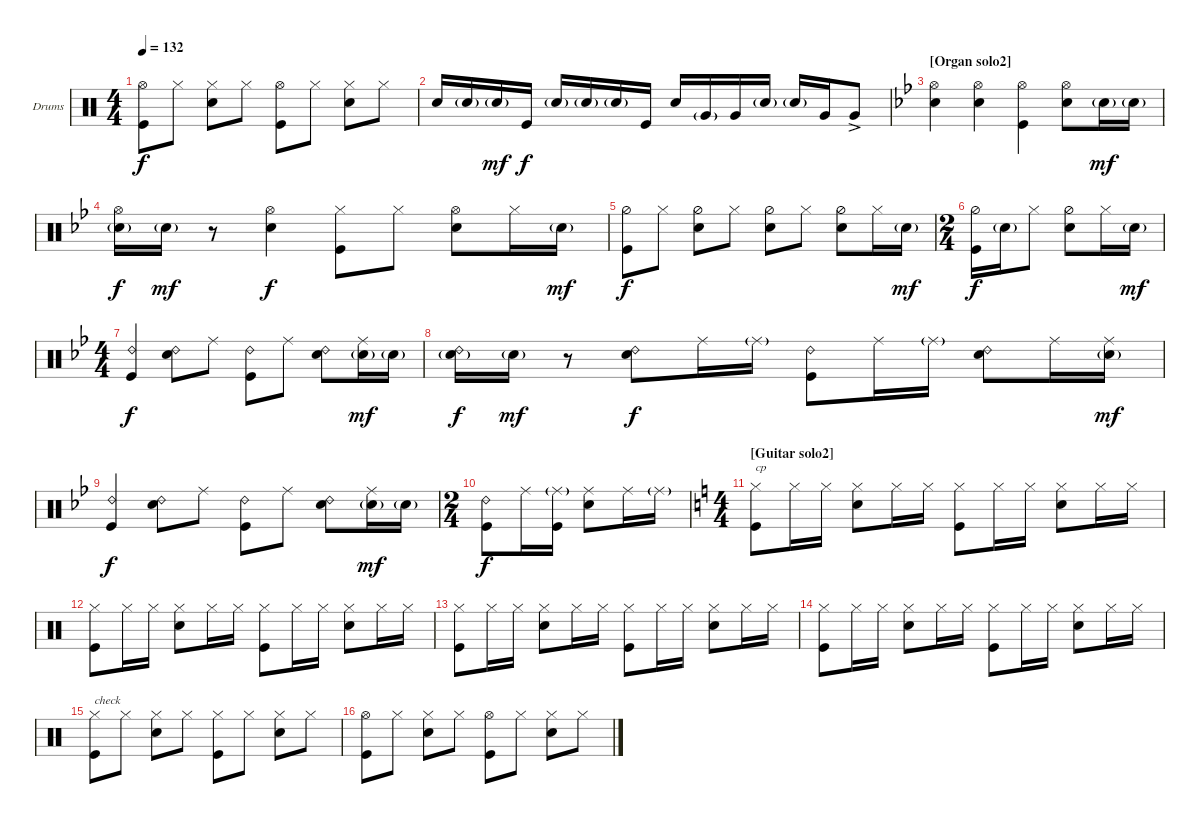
\bracketExtendMode groupsimilarinstruments
\firstSystemTrackNameOrientation horizontal
\otherSystemsTrackNameOrientation horizontal
\track ("Drumkit" "Drums") {instrument percussion}
\staff {score}
\articulation defaults
\ts (4 4)
\tempo 132
\clef neutral
\ks c
("Hi-Hat (open)" "Kick (hit)").8{dy f} "Hi-Hat (closed)".8 ("Hi-Hat (closed)" "Snare (hit) 2").8 "Hi-Hat (closed)".8 ("Hi-Hat (open)" "Kick (hit)").8 "Hi-Hat (closed)".8 ("Snare (hit) 2" "Hi-Hat (closed)").8 "Hi-Hat (closed)".8 |
"Snare (hit) 2".16 "Snare (hit) 2"{g}.16 "Snare (hit) 2"{g}.16{dy mf} "Kick (hit)".16{dy f} "Snare (hit) 2"{g}.16 "Snare (hit) 2"{g}.16 "Snare (hit) 2"{g}.16 "Kick (hit)".16 "Snare (hit) 2".16 "Very Low Tom (hit)"{g}.16 "Very Low Tom (hit)".16 "Snare (hit) 2"{g}.16 "Snare (hit) 2"{g}.16 "Very Low Tom (hit)".16 "Very Low Tom (hit)"{ac}.8 |
\section ("" "[Organ solo2] ")
\ks gminor
("Snare (hit) 2" "Hi-Hat (open)").4 ("Snare (hit) 2" "Hi-Hat (open)").4 ("Hi-Hat (open)" "Kick (hit)").4 ("Snare (hit) 2" "Hi-Hat (open)").8 "Snare (hit) 2"{g}.16{dy mf} "Snare (hit) 2"{g}.16 |
("Snare (hit) 2"{g} "Hi-Hat (open)").16{dy f} "Snare (hit) 2"{g}.16{dy mf} r.8 ("Hi-Hat (open)" "Snare (hit) 2").4{dy f} ("Hi-Hat (closed)" "Kick (hit)").8 "Hi-Hat (closed)".8 ("Hi-Hat (open)" "Snare (hit) 2").8 "Hi-Hat (closed)".16 "Snare (hit) 2"{g}.16{dy mf} |
("Hi-Hat (half)" "Kick (hit)").8{dy f} "Hi-Hat (closed)".8 ("Hi-Hat (half)" "Snare (hit) 2").8 "Hi-Hat (closed)".8 ("Hi-Hat (half)" "Snare (hit) 2").8 "Hi-Hat (closed)".8 ("Hi-Hat (half)" "Snare (hit) 2").8 "Hi-Hat (closed)".16 "Snare (hit) 2"{g}.16{dy mf} |
\ts (2 4)
("Hi-Hat (half)" "Kick (hit)").16{dy f} "Snare (hit) 2"{g}.16 "Hi-Hat (closed)".8 ("Hi-Hat (half)" "Snare (hit) 2").8 "Hi-Hat (closed)".16 "Snare (hit) 2"{g}.16{dy mf} |
\ts (4 4)
("Kick (hit)" "Ride (bell) 2").4{dy f} ("Snare (hit) 2" "Ride (bell) 2").8 "Ride (middle)".8 ("Kick (hit)" "Ride (bell) 2").8 "Ride (middle)".8 ("Snare (hit) 2" "Ride (bell) 2").8 ("Snare (hit) 2"{g} "Ride (middle)").16{dy mf} "Snare (hit) 2"{g}.16 |
("Snare (hit) 2"{g} "Ride (bell) 2").16{dy f} "Snare (hit) 2"{g}.16{dy mf} r.8 ("Snare (hit) 2" "Ride (bell) 2").8{dy f} "Ride (middle)".16 "Ride (middle)"{g}.16 ("Kick (hit)" "Ride (bell) 2").8 "Ride (middle)".16 "Ride (middle)"{g}.16 ("Snare (hit) 2" "Ride (bell) 2").8 "Ride (middle)".16 ("Snare (hit) 2"{g} "Ride (middle)").16{dy mf} |
("Kick (hit)" "Ride (bell) 2").4{dy f} ("Snare (hit) 2" "Ride (bell) 2").8 "Ride (middle)".8 ("Kick (hit)" "Ride (bell) 2").8 "Ride (middle)".8 ("Snare (hit) 2" "Ride (bell) 2").8 ("Snare (hit) 2"{g} "Ride (middle)").16{dy mf} "Snare (hit) 2"{g}.16 |
\ts (2 4)
("Kick (hit)" "Ride (bell) 2").8{dy f} "Ride (middle)".16 ("Kick (hit)" "Ride (middle)"{g}).16 ("Snare (hit) 2" "Ride (middle)").8 "Ride (middle)".16 "Ride (middle)"{g}.16 |
\ts (4 4)
\section ("" "[Guitar solo2] ")
\ks aminor
("Hi-Hat (closed)" "Kick (hit)").8{txt "cp"} "Hi-Hat (closed)".16 "Hi-Hat (closed)".16 ("Hi-Hat (closed)" "Snare (hit) 2").8 "Hi-Hat (closed)".16 "Hi-Hat (closed)".16 ("Hi-Hat (closed)" "Kick (hit)").8 "Hi-Hat (closed)".16 "Hi-Hat (closed)".16 ("Hi-Hat (closed)" "Snare (hit) 2").8 "Hi-Hat (closed)".16 "Hi-Hat (closed)".16 |
("Hi-Hat (closed)" "Kick (hit)").8 "Hi-Hat (closed)".16 "Hi-Hat (closed)".16 ("Hi-Hat (closed)" "Snare (hit) 2").8 "Hi-Hat (closed)".16 "Hi-Hat (closed)".16 ("Hi-Hat (closed)" "Kick (hit)").8 "Hi-Hat (closed)".16 "Hi-Hat (closed)".16 ("Hi-Hat (closed)" "Snare (hit) 2").8 "Hi-Hat (closed)".16 "Hi-Hat (closed)".16 |
("Hi-Hat (closed)" "Kick (hit)").8 "Hi-Hat (closed)".16 "Hi-Hat (closed)".16 ("Hi-Hat (closed)" "Snare (hit) 2").8 "Hi-Hat (closed)".16 "Hi-Hat (closed)".16 ("Hi-Hat (closed)" "Kick (hit)").8 "Hi-Hat (closed)".16 "Hi-Hat (closed)".16 ("Hi-Hat (closed)" "Snare (hit) 2").8 "Hi-Hat (closed)".16 "Hi-Hat (closed)".16 |
("Hi-Hat (closed)" "Kick (hit)").8 "Hi-Hat (closed)".16 "Hi-Hat (closed)".16 ("Hi-Hat (closed)" "Snare (hit) 2").8 "Hi-Hat (closed)".16 "Hi-Hat (closed)".16 ("Hi-Hat (closed)" "Kick (hit)").8 "Hi-Hat (closed)".16 "Hi-Hat (closed)".16 ("Hi-Hat (closed)" "Snare (hit) 2").8 "Hi-Hat (closed)".16 "Hi-Hat (closed)".16 |
("Hi-Hat (closed)" "Kick (hit)").8{txt "check"} "Hi-Hat (closed)".8 ("Hi-Hat (closed)" "Snare (hit) 2").8 "Hi-Hat (closed)".8 ("Hi-Hat (closed)" "Kick (hit)").8 "Hi-Hat (closed)".8 ("Snare (hit) 2" "Hi-Hat (closed)").8 "Hi-Hat (closed)".8 |
("Hi-Hat (open)" "Kick (hit)").8 "Hi-Hat (closed)".8 ("Hi-Hat (closed)" "Snare (hit) 2").8 "Hi-Hat (closed)".8 ("Hi-Hat (open)" "Kick (hit)").8 "Hi-Hat (closed)".8 ("Snare (hit) 2" "Hi-Hat (closed)").8 "Hi-Hat (closed)".8
